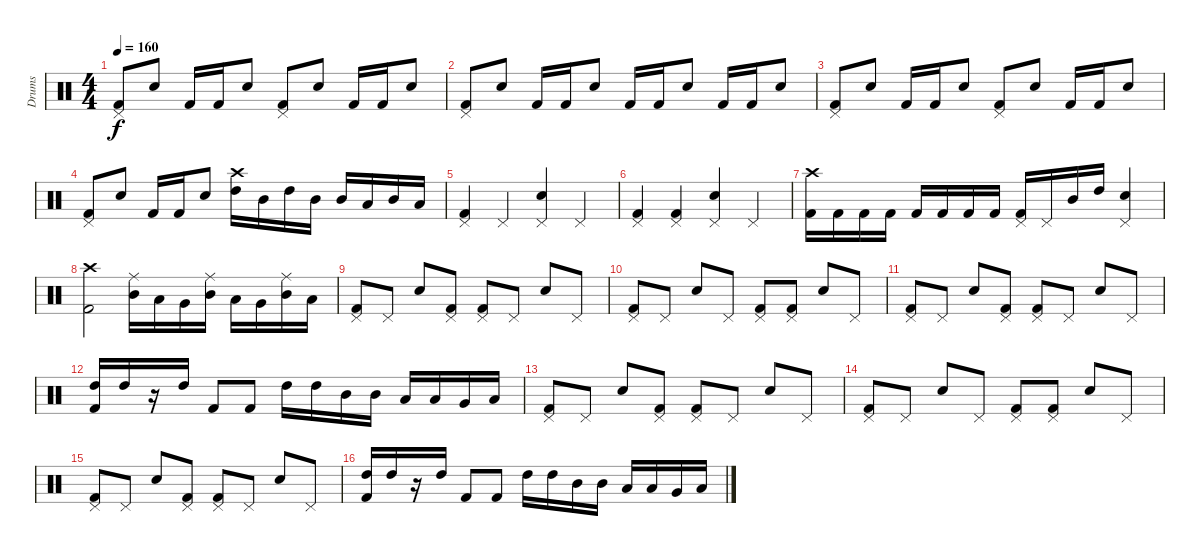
\track ("Drums" "Drums") {instrument percussion}
\staff {score}
\articulation defaults
\ts (4 4)
\tempo 160
\clef neutral
\ks c
("Pedal Hi-Hat (hit)" "Kick (hit) 2").8{dy f} "Electric Snare (hit)".8 "Kick (hit) 2".16 "Kick (hit) 2".16 "Electric Snare (hit)".8 ("Pedal Hi-Hat (hit)" "Kick (hit) 2").8 "Electric Snare (hit)".8 "Kick (hit) 2".16 "Kick (hit) 2".16 "Electric Snare (hit)".8 |
("Pedal Hi-Hat (hit)" "Kick (hit) 2").8 "Electric Snare (hit)".8 "Kick (hit) 2".16 "Kick (hit) 2".16 "Electric Snare (hit)".8 "Kick (hit) 2".16 "Kick (hit) 2".16 "Electric Snare (hit)".8 "Kick (hit) 2".16 "Kick (hit) 2".16 "Electric Snare (hit)".8 |
("Pedal Hi-Hat (hit)" "Kick (hit) 2").8 "Electric Snare (hit)".8 "Kick (hit) 2".16 "Kick (hit) 2".16 "Electric Snare (hit)".8 ("Pedal Hi-Hat (hit)" "Kick (hit) 2").8 "Electric Snare (hit)".8 "Kick (hit) 2".16 "Kick (hit) 2".16 "Electric Snare (hit)".8 |
("Pedal Hi-Hat (hit)" "Kick (hit) 2").8 "Electric Snare (hit)".8 "Kick (hit) 2".16 "Kick (hit) 2".16 "Electric Snare (hit)".8 ("Crash high (hit)" "High Tom (hit)").16 "Mid Tom (hit)".16 "High Tom (hit)".16 "Mid Tom (hit)".16 "Mid Tom (hit)".16 "Low Tom (hit)".16 "Mid Tom (hit)".16 "Low Tom (hit)".16 |
("Pedal Hi-Hat (hit)" "Kick (hit) 2").4 "Pedal Hi-Hat (hit)".4 ("Electric Snare (hit)" "Pedal Hi-Hat (hit)").4 "Pedal Hi-Hat (hit)".4 |
("Pedal Hi-Hat (hit)" "Kick (hit) 2").4 ("Pedal Hi-Hat (hit)" "Kick (hit) 2").4 ("Pedal Hi-Hat (hit)" "Electric Snare (hit)").4 "Pedal Hi-Hat (hit)".4 |
("Crash high (hit)" "Kick (hit) 2").16 "Kick (hit) 2".16 "Kick (hit) 2".16 "Kick (hit) 2".16 "Kick (hit) 2".16 "Kick (hit) 2".16 "Kick (hit) 2".16 "Kick (hit) 2".16 ("Pedal Hi-Hat (hit)" "Kick (hit) 2").16 "Pedal Hi-Hat (hit)".16 "Mid Tom (hit)".16 "High Tom (hit)".16 ("Electric Snare (hit)" "Pedal Hi-Hat (hit)").4 |
("Crash high (hit)" "Kick (hit) 2").2 ("Ride (middle)" "Mid Tom (hit)").16 "Low Tom (hit)".16 "Very Low Tom (hit)".16 ("Ride (middle)" "Mid Tom (hit)").16 "Low Tom (hit)".16 "Very Low Tom (hit)".16 ("Ride (middle)" "Mid Tom (hit)").16 "Low Tom (hit)".16 |
("Pedal Hi-Hat (hit)" "Kick (hit) 2").8 "Pedal Hi-Hat (hit)".8 "Electric Snare (hit)".8 ("Pedal Hi-Hat (hit)" "Kick (hit) 2").8 ("Pedal Hi-Hat (hit)" "Kick (hit) 2").8 "Pedal Hi-Hat (hit)".8 "Electric Snare (hit)".8 "Pedal Hi-Hat (hit)".8 |
("Pedal Hi-Hat (hit)" "Kick (hit) 2").8 "Pedal Hi-Hat (hit)".8 "Electric Snare (hit)".8 "Pedal Hi-Hat (hit)".8 ("Pedal Hi-Hat (hit)" "Kick (hit) 2").8 ("Pedal Hi-Hat (hit)" "Kick (hit) 2").8 "Electric Snare (hit)".8 "Pedal Hi-Hat (hit)".8 |
("Pedal Hi-Hat (hit)" "Kick (hit) 2").8 "Pedal Hi-Hat (hit)".8 "Electric Snare (hit)".8 ("Pedal Hi-Hat (hit)" "Kick (hit) 2").8 ("Pedal Hi-Hat (hit)" "Kick (hit) 2").8 "Pedal Hi-Hat (hit)".8 "Electric Snare (hit)".8 "Pedal Hi-Hat (hit)".8 |
("High Tom (hit)" "Kick (hit) 2").16 "High Tom (hit)".16 r.16 "High Tom (hit)".16 "Kick (hit) 2".8 "Kick (hit) 2".8 "High Tom (hit)".16 "High Tom (hit)".16 "Mid Tom (hit)".16 "Mid Tom (hit)".16 "Low Tom (hit)".16 "Low Tom (hit)".16 "Very Low Tom (hit)".16 "Low Floor Tom (hit)".16 |
("Pedal Hi-Hat (hit)" "Kick (hit) 2").8 "Pedal Hi-Hat (hit)".8 "Electric Snare (hit)".8 ("Pedal Hi-Hat (hit)" "Kick (hit) 2").8 ("Pedal Hi-Hat (hit)" "Kick (hit) 2").8 "Pedal Hi-Hat (hit)".8 "Electric Snare (hit)".8 "Pedal Hi-Hat (hit)".8 |
("Pedal Hi-Hat (hit)" "Kick (hit) 2").8 "Pedal Hi-Hat (hit)".8 "Electric Snare (hit)".8 "Pedal Hi-Hat (hit)".8 ("Pedal Hi-Hat (hit)" "Kick (hit) 2").8 ("Pedal Hi-Hat (hit)" "Kick (hit) 2").8 "Electric Snare (hit)".8 "Pedal Hi-Hat (hit)".8 |
("Pedal Hi-Hat (hit)" "Kick (hit) 2").8 "Pedal Hi-Hat (hit)".8 "Electric Snare (hit)".8 ("Pedal Hi-Hat (hit)" "Kick (hit) 2").8 ("Pedal Hi-Hat (hit)" "Kick (hit) 2").8 "Pedal Hi-Hat (hit)".8 "Electric Snare (hit)".8 "Pedal Hi-Hat (hit)".8 |
("High Tom (hit)" "Kick (hit) 2").16 "High Tom (hit)".16 r.16 "High Tom (hit)".16 "Kick (hit) 2".8 "Kick (hit) 2".8 "High Tom (hit)".16 "High Tom (hit)".16 "Mid Tom (hit)".16 "Mid Tom (hit)".16 "Low Tom (hit)".16 "Low Tom (hit)".16 "Very Low Tom (hit)".16 "Low Floor Tom (hit)".16
